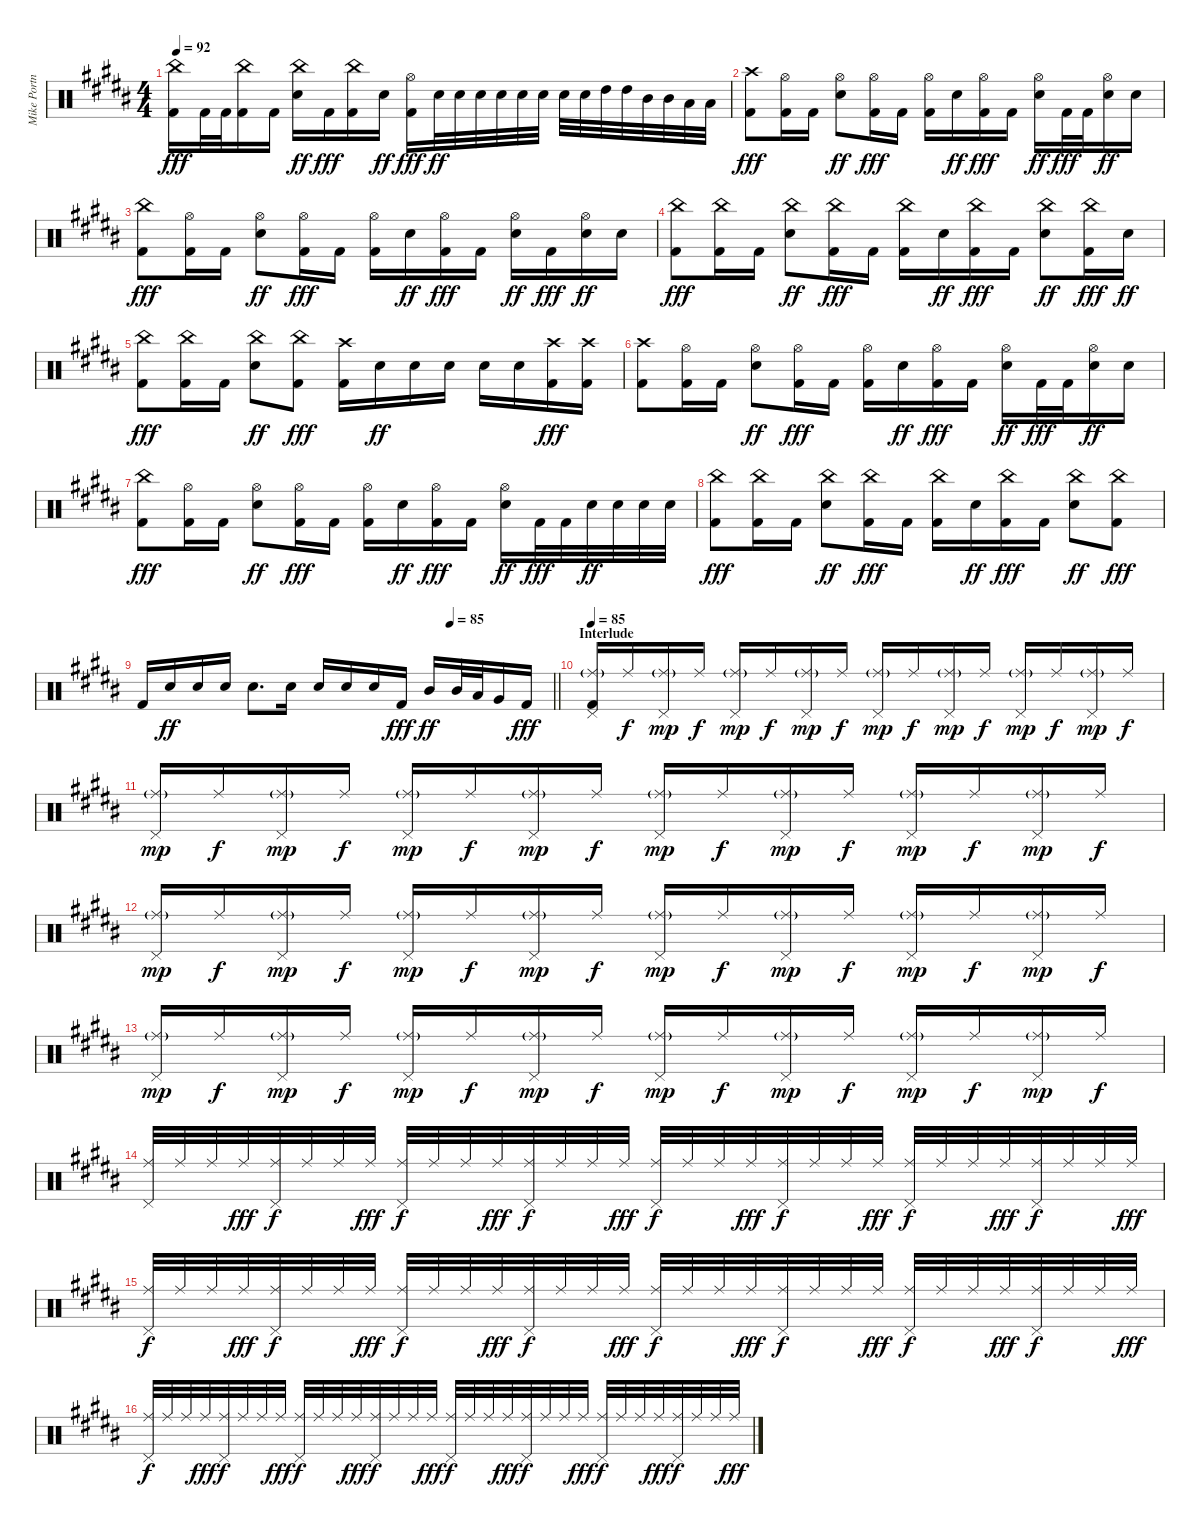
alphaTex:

\track ("Mike Portnoy" "Mike Portn") {instrument percussion}
\staff {score}
\articulation defaults
\ts (4 4)
\tempo 92
\clef neutral
\ks b
("China (hit)" "Kick (hit) 2").16{dy fff} "Kick (hit) 2".32 "Kick (hit) 2".32 ("China (hit)" "Kick (hit) 2").16 "Kick (hit) 2".16 ("China (hit)" "Electric Snare (hit)").16{dy ff} "Kick (hit) 2".16{dy fff} ("China (hit)" "Kick (hit) 2").16 "Electric Snare (hit)".16{dy ff} ("Hi-Hat (open)" "Kick (hit) 2").16{dy fff} "Electric Snare (hit)".32{dy ff} "Electric Snare (hit)".32 "Electric Snare (hit)".32 "Electric Snare (hit)".32 "Electric Snare (hit)".32 "Electric Snare (hit)".32 "Electric Snare (hit)".32 "Electric Snare (hit)".32 "High Tom (hit)".32 "High Tom (hit)".32 "Mid Tom (hit)".32 "Mid Tom (hit)".32 "Low Tom (hit)".32 "Low Tom (hit)".32 |
("Crash high (hit)" "Kick (hit) 2").8{dy fff} ("Hi-Hat (open)" "Kick (hit) 2").16 "Kick (hit) 2".16 ("Hi-Hat (open)" "Electric Snare (hit)").8{dy ff} ("Hi-Hat (open)" "Kick (hit) 2").16{dy fff} "Kick (hit) 2".16 ("Hi-Hat (open)" "Kick (hit) 2").16 "Electric Snare (hit)".16{dy ff} ("Hi-Hat (open)" "Kick (hit) 2").16{dy fff} "Kick (hit) 2".16 ("Hi-Hat (open)" "Electric Snare (hit)").16{dy ff} "Kick (hit) 2".32{dy fff} "Kick (hit) 2".32 ("Hi-Hat (open)" "Electric Snare (hit)").16{dy ff} "Electric Snare (hit)".16 |
("China (hit)" "Kick (hit) 2").8{dy fff} ("Hi-Hat (open)" "Kick (hit) 2").16 "Kick (hit) 2".16 ("Hi-Hat (open)" "Electric Snare (hit)").8{dy ff} ("Hi-Hat (open)" "Kick (hit) 2").16{dy fff} "Kick (hit) 2".16 ("Hi-Hat (open)" "Kick (hit) 2").16 "Electric Snare (hit)".16{dy ff} ("Hi-Hat (open)" "Kick (hit) 2").16{dy fff} "Kick (hit) 2".16 ("Hi-Hat (open)" "Electric Snare (hit)").16{dy ff} "Kick (hit) 2".16{dy fff} ("Hi-Hat (open)" "Electric Snare (hit)").16{dy ff} "Electric Snare (hit)".16 |
("China (hit)" "Kick (hit) 2").8{dy fff} ("China (hit)" "Kick (hit) 2").16 "Kick (hit) 2".16 ("China (hit)" "Electric Snare (hit)").8{dy ff} ("China (hit)" "Kick (hit) 2").16{dy fff} "Kick (hit) 2".16 ("China (hit)" "Kick (hit) 2").16 "Electric Snare (hit)".16{dy ff} ("China (hit)" "Kick (hit) 2").16{dy fff} "Kick (hit) 2".16 ("China (hit)" "Electric Snare (hit)").8{dy ff} ("China (hit)" "Kick (hit) 2").16{dy fff} "Electric Snare (hit)".16{dy ff} |
("China (hit)" "Kick (hit) 2").8{dy fff} ("China (hit)" "Kick (hit) 2").16 "Kick (hit) 2".16 ("China (hit)" "Electric Snare (hit)").8{dy ff} ("China (hit)" "Kick (hit) 2").8{dy fff} ("Crash high (hit)" "Kick (hit) 2").16 "Electric Snare (hit)".16{dy ff} "Electric Snare (hit)".16 "Electric Snare (hit)".16 "Electric Snare (hit)".16 "Electric Snare (hit)".16 ("Crash high (hit)" "Kick (hit) 2").16{dy fff} ("Crash high (hit)" "Kick (hit) 2").16 |
("Crash high (hit)" "Kick (hit) 2").8 ("Hi-Hat (open)" "Kick (hit) 2").16 "Kick (hit) 2".16 ("Hi-Hat (open)" "Electric Snare (hit)").8{dy ff} ("Hi-Hat (open)" "Kick (hit) 2").16{dy fff} "Kick (hit) 2".16 ("Hi-Hat (open)" "Kick (hit) 2").16 "Electric Snare (hit)".16{dy ff} ("Hi-Hat (open)" "Kick (hit) 2").16{dy fff} "Kick (hit) 2".16 ("Hi-Hat (open)" "Electric Snare (hit)").16{dy ff} "Kick (hit) 2".32{dy fff} "Kick (hit) 2".32 ("Hi-Hat (open)" "Electric Snare (hit)").16{dy ff} "Electric Snare (hit)".16 |
("China (hit)" "Kick (hit) 2").8{dy fff} ("Hi-Hat (open)" "Kick (hit) 2").16 "Kick (hit) 2".16 ("Hi-Hat (open)" "Electric Snare (hit)").8{dy ff} ("Hi-Hat (open)" "Kick (hit) 2").16{dy fff} "Kick (hit) 2".16 ("Hi-Hat (open)" "Kick (hit) 2").16 "Electric Snare (hit)".16{dy ff} ("Hi-Hat (open)" "Kick (hit) 2").16{dy fff} "Kick (hit) 2".16 ("Hi-Hat (open)" "Electric Snare (hit)").16{dy ff} "Kick (hit) 2".32{dy fff} "Kick (hit) 2".32 "Electric Snare (hit)".32{dy ff} "Electric Snare (hit)".32 "Electric Snare (hit)".32 "Electric Snare (hit)".32 |
("China (hit)" "Kick (hit) 2").8{dy fff} ("China (hit)" "Kick (hit) 2").16 "Kick (hit) 2".16 ("China (hit)" "Electric Snare (hit)").8{dy ff} ("China (hit)" "Kick (hit) 2").16{dy fff} "Kick (hit) 2".16 ("China (hit)" "Kick (hit) 2").16 "Electric Snare (hit)".16{dy ff} ("China (hit)" "Kick (hit) 2").16{dy fff} "Kick (hit) 2".16 ("China (hit)" "Electric Snare (hit)").8{dy ff} ("China (hit)" "Kick (hit) 2").8{dy fff} |
\tempo (85 0.75)
\barLineRight lightlight "Kick (hit) 2".16 "Electric Snare (hit)".16{dy ff} "Electric Snare (hit)".16 "Electric Snare (hit)".16 "Electric Snare (hit)".8{d} "Electric Snare (hit)".16 "Electric Snare (hit)".16 "Electric Snare (hit)".16 "Electric Snare (hit)".16 "Kick (hit) 2".16{dy fff} "Mid Tom (hit)".16{dy ff} "Mid Tom (hit)".32 "Low Tom (hit)".32 "Very Low Tom (hit)".16 "Kick (hit) 2".16{dy fff}
|
\section ("" "Interlude")
\tempo 85
("Ride (middle)"{g} "Kick (hit) 2" "Pedal Hi-Hat (hit)").16 "Ride (middle)".16{dy f} ("Ride (middle)"{g} "Pedal Hi-Hat (hit)").16{dy mp} "Ride (middle)".16{dy f} ("Ride (middle)"{g} "Pedal Hi-Hat (hit)").16{dy mp} "Ride (middle)".16{dy f} ("Ride (middle)"{g} "Pedal Hi-Hat (hit)").16{dy mp} "Ride (middle)".16{dy f} ("Ride (middle)"{g} "Pedal Hi-Hat (hit)").16{dy mp} "Ride (middle)".16{dy f} ("Ride (middle)"{g} "Pedal Hi-Hat (hit)").16{dy mp} "Ride (middle)".16{dy f} ("Ride (middle)"{g} "Pedal Hi-Hat (hit)").16{dy mp} "Ride (middle)".16{dy f} ("Ride (middle)"{g} "Pedal Hi-Hat (hit)").16{dy mp} "Ride (middle)".16{dy f} |
("Ride (middle)"{g} "Pedal Hi-Hat (hit)").16{dy mp} "Ride (middle)".16{dy f} ("Ride (middle)"{g} "Pedal Hi-Hat (hit)").16{dy mp} "Ride (middle)".16{dy f} ("Ride (middle)"{g} "Pedal Hi-Hat (hit)").16{dy mp} "Ride (middle)".16{dy f} ("Ride (middle)"{g} "Pedal Hi-Hat (hit)").16{dy mp} "Ride (middle)".16{dy f} ("Ride (middle)"{g} "Pedal Hi-Hat (hit)").16{dy mp} "Ride (middle)".16{dy f} ("Ride (middle)"{g} "Pedal Hi-Hat (hit)").16{dy mp} "Ride (middle)".16{dy f} ("Ride (middle)"{g} "Pedal Hi-Hat (hit)").16{dy mp} "Ride (middle)".16{dy f} ("Ride (middle)"{g} "Pedal Hi-Hat (hit)").16{dy mp} "Ride (middle)".16{dy f} |
("Ride (middle)"{g} "Pedal Hi-Hat (hit)").16{dy mp} "Ride (middle)".16{dy f} ("Ride (middle)"{g} "Pedal Hi-Hat (hit)").16{dy mp} "Ride (middle)".16{dy f} ("Ride (middle)"{g} "Pedal Hi-Hat (hit)").16{dy mp} "Ride (middle)".16{dy f} ("Ride (middle)"{g} "Pedal Hi-Hat (hit)").16{dy mp} "Ride (middle)".16{dy f} ("Ride (middle)"{g} "Pedal Hi-Hat (hit)").16{dy mp} "Ride (middle)".16{dy f} ("Ride (middle)"{g} "Pedal Hi-Hat (hit)").16{dy mp} "Ride (middle)".16{dy f} ("Ride (middle)"{g} "Pedal Hi-Hat (hit)").16{dy mp} "Ride (middle)".16{dy f} ("Ride (middle)"{g} "Pedal Hi-Hat (hit)").16{dy mp} "Ride (middle)".16{dy f} |
("Ride (middle)"{g} "Pedal Hi-Hat (hit)").16{dy mp} "Ride (middle)".16{dy f} ("Ride (middle)"{g} "Pedal Hi-Hat (hit)").16{dy mp} "Ride (middle)".16{dy f} ("Ride (middle)"{g} "Pedal Hi-Hat (hit)").16{dy mp} "Ride (middle)".16{dy f} ("Ride (middle)"{g} "Pedal Hi-Hat (hit)").16{dy mp} "Ride (middle)".16{dy f} ("Ride (middle)"{g} "Pedal Hi-Hat (hit)").16{dy mp} "Ride (middle)".16{dy f} ("Ride (middle)"{g} "Pedal Hi-Hat (hit)").16{dy mp} "Ride (middle)".16{dy f} ("Ride (middle)"{g} "Pedal Hi-Hat (hit)").16{dy mp} "Ride (middle)".16{dy f} ("Ride (middle)"{g} "Pedal Hi-Hat (hit)").16{dy mp} "Ride (middle)".16{dy f} |
("Ride (middle)" "Pedal Hi-Hat (hit)").32 "Ride (middle)".32 "Ride (middle)".32 "Ride (middle)".32{dy fff} ("Ride (middle)" "Pedal Hi-Hat (hit)").32{dy f} "Ride (middle)".32 "Ride (middle)".32 "Ride (middle)".32{dy fff} ("Ride (middle)" "Pedal Hi-Hat (hit)").32{dy f} "Ride (middle)".32 "Ride (middle)".32 "Ride (middle)".32{dy fff} ("Ride (middle)" "Pedal Hi-Hat (hit)").32{dy f} "Ride (middle)".32 "Ride (middle)".32 "Ride (middle)".32{dy fff} ("Ride (middle)" "Pedal Hi-Hat (hit)").32{dy f} "Ride (middle)".32 "Ride (middle)".32 "Ride (middle)".32{dy fff} ("Ride (middle)" "Pedal Hi-Hat (hit)").32{dy f} "Ride (middle)".32 "Ride (middle)".32 "Ride (middle)".32{dy fff} ("Ride (middle)" "Pedal Hi-Hat (hit)").32{dy f} "Ride (middle)".32 "Ride (middle)".32 "Ride (middle)".32{dy fff} ("Ride (middle)" "Pedal Hi-Hat (hit)").32{dy f} "Ride (middle)".32 "Ride (middle)".32 "Ride (middle)".32{dy fff} |
("Ride (middle)" "Pedal Hi-Hat (hit)").32{dy f} "Ride (middle)".32 "Ride (middle)".32 "Ride (middle)".32{dy fff} ("Ride (middle)" "Pedal Hi-Hat (hit)").32{dy f} "Ride (middle)".32 "Ride (middle)".32 "Ride (middle)".32{dy fff} ("Ride (middle)" "Pedal Hi-Hat (hit)").32{dy f} "Ride (middle)".32 "Ride (middle)".32 "Ride (middle)".32{dy fff} ("Ride (middle)" "Pedal Hi-Hat (hit)").32{dy f} "Ride (middle)".32 "Ride (middle)".32 "Ride (middle)".32{dy fff} ("Ride (middle)" "Pedal Hi-Hat (hit)").32{dy f} "Ride (middle)".32 "Ride (middle)".32 "Ride (middle)".32{dy fff} ("Ride (middle)" "Pedal Hi-Hat (hit)").32{dy f} "Ride (middle)".32 "Ride (middle)".32 "Ride (middle)".32{dy fff} ("Ride (middle)" "Pedal Hi-Hat (hit)").32{dy f} "Ride (middle)".32 "Ride (middle)".32 "Ride (middle)".32{dy fff} ("Ride (middle)" "Pedal Hi-Hat (hit)").32{dy f} "Ride (middle)".32 "Ride (middle)".32 "Ride (middle)".32{dy fff} |
("Ride (middle)" "Pedal Hi-Hat (hit)").32{dy f} "Ride (middle)".32 "Ride (middle)".32 "Ride (middle)".32{dy fff} ("Ride (middle)" "Pedal Hi-Hat (hit)").32{dy f} "Ride (middle)".32 "Ride (middle)".32 "Ride (middle)".32{dy fff} ("Ride (middle)" "Pedal Hi-Hat (hit)").32{dy f} "Ride (middle)".32 "Ride (middle)".32 "Ride (middle)".32{dy fff} ("Ride (middle)" "Pedal Hi-Hat (hit)").32{dy f} "Ride (middle)".32 "Ride (middle)".32 "Ride (middle)".32{dy fff} ("Ride (middle)" "Pedal Hi-Hat (hit)").32{dy f} "Ride (middle)".32 "Ride (middle)".32 "Ride (middle)".32{dy fff} ("Ride (middle)" "Pedal Hi-Hat (hit)").32{dy f} "Ride (middle)".32 "Ride (middle)".32 "Ride (middle)".32{dy fff} ("Ride (middle)" "Pedal Hi-Hat (hit)").32{dy f} "Ride (middle)".32 "Ride (middle)".32 "Ride (middle)".32{dy fff} ("Ride (middle)" "Pedal Hi-Hat (hit)").32{dy f} "Ride (middle)".32 "Ride (middle)".32 "Ride (middle)".32{dy fff}
